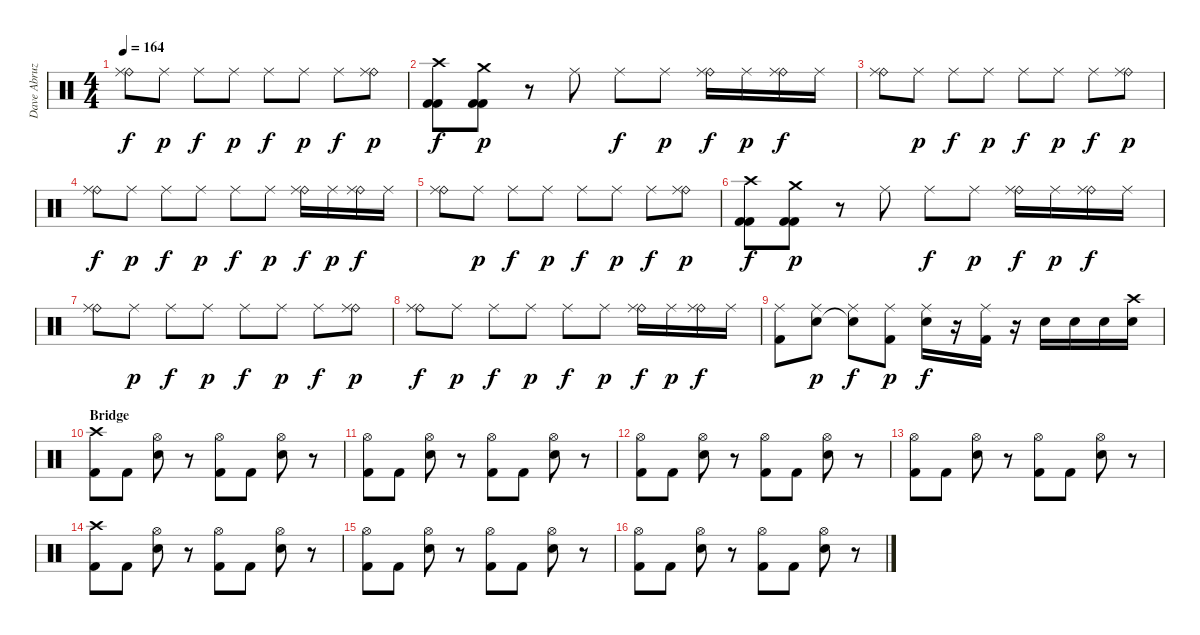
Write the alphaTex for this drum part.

\track ("Dave Abruzzese" "Dave Abruz") {instrument percussion}
\staff {score}
\articulation defaults
\ts (4 4)
\tempo 164
\clef neutral
\ks c
("Ride (bell)" "Ride (middle)").8{dy f} "Ride (middle)".8{dy p} "Ride (middle)".8{dy f} "Ride (middle)".8{dy p} "Ride (middle)".8{dy f} "Ride (middle)".8{dy p} "Ride (middle)".8{dy f} ("Ride (bell)" "Ride (middle)").8{dy p} |
("Crash high (hit)" "Kick (hit) 2" "Kick (hit) 2").8{dy f} ("Crash medium (hit)" "Kick (hit) 2" "Kick (hit) 2").8{dy p} r.8 "Ride (middle)".8 "Ride (middle)".8{dy f} "Ride (middle)".8{dy p} ("Ride (bell)" "Ride (middle)").16{dy f} "Ride (middle)".16{dy p} ("Ride (bell)" "Ride (middle)").16{dy f} "Ride (middle)".16 |
("Ride (bell)" "Ride (middle)").8 "Ride (middle)".8{dy p} "Ride (middle)".8{dy f} "Ride (middle)".8{dy p} "Ride (middle)".8{dy f} "Ride (middle)".8{dy p} "Ride (middle)".8{dy f} ("Ride (bell)" "Ride (middle)").8{dy p} |
("Ride (bell)" "Ride (middle)").8{dy f} "Ride (middle)".8{dy p} "Ride (middle)".8{dy f} "Ride (middle)".8{dy p} "Ride (middle)".8{dy f} "Ride (middle)".8{dy p} ("Ride (bell)" "Ride (middle)").16{dy f} "Ride (middle)".16{dy p} ("Ride (bell)" "Ride (middle)").16{dy f} "Ride (middle)".16 |
("Ride (bell)" "Ride (middle)").8 "Ride (middle)".8{dy p} "Ride (middle)".8{dy f} "Ride (middle)".8{dy p} "Ride (middle)".8{dy f} "Ride (middle)".8{dy p} "Ride (middle)".8{dy f} ("Ride (bell)" "Ride (middle)").8{dy p} |
("Crash high (hit)" "Kick (hit) 2" "Kick (hit) 2").8{dy f} ("Crash medium (hit)" "Kick (hit) 2" "Kick (hit) 2").8{dy p} r.8 "Ride (middle)".8 "Ride (middle)".8{dy f} "Ride (middle)".8{dy p} ("Ride (bell)" "Ride (middle)").16{dy f} "Ride (middle)".16{dy p} ("Ride (bell)" "Ride (middle)").16{dy f} "Ride (middle)".16 |
("Ride (bell)" "Ride (middle)").8 "Ride (middle)".8{dy p} "Ride (middle)".8{dy f} "Ride (middle)".8{dy p} "Ride (middle)".8{dy f} "Ride (middle)".8{dy p} "Ride (middle)".8{dy f} ("Ride (bell)" "Ride (middle)").8{dy p} |
("Ride (bell)" "Ride (middle)").8{dy f} "Ride (middle)".8{dy p} "Ride (middle)".8{dy f} "Ride (middle)".8{dy p} "Ride (middle)".8{dy f} "Ride (middle)".8{dy p} ("Ride (bell)" "Ride (middle)").16{dy f} "Ride (middle)".16{dy p} ("Ride (bell)" "Ride (middle)").16{dy f} "Ride (middle)".16 |
("Ride (middle)" "Kick (hit) 2").8 ("Snare (hit) 2" "Ride (middle)").8{dy p} ("Snare (hit) 2"{t} "Ride (middle)").8{dy f} ("Kick (hit) 2" "Ride (middle)").8{dy p} ("Snare (hit) 2" "Ride (middle)").16{dy f} r.16 ("Kick (hit) 2" "Ride (middle)").16 r.16 "Snare (hit) 2".16 "Snare (hit) 2".16 "Snare (hit) 2".16 ("Crash high (hit)" "Snare (hit) 2").16 |
\section ("" "Bridge")
("Kick (hit) 2" "Crash high (hit)").8 "Kick (hit) 2".8 ("Electric Snare (hit)" "Hi-Hat (open)").8 r.8 ("Kick (hit) 2" "Hi-Hat (open)").8 "Kick (hit) 2".8 ("Electric Snare (hit)" "Hi-Hat (open)").8 r.8 |
("Kick (hit) 2" "Hi-Hat (open)").8 "Kick (hit) 2".8 ("Electric Snare (hit)" "Hi-Hat (open)").8 r.8 ("Kick (hit) 2" "Hi-Hat (open)").8 "Kick (hit) 2".8 ("Electric Snare (hit)" "Hi-Hat (open)").8 r.8 |
("Kick (hit) 2" "Hi-Hat (open)").8 "Kick (hit) 2".8 ("Electric Snare (hit)" "Hi-Hat (open)").8 r.8 ("Kick (hit) 2" "Hi-Hat (open)").8 "Kick (hit) 2".8 ("Electric Snare (hit)" "Hi-Hat (open)").8 r.8 |
("Kick (hit) 2" "Hi-Hat (open)").8 "Kick (hit) 2".8 ("Electric Snare (hit)" "Hi-Hat (open)").8 r.8 ("Kick (hit) 2" "Hi-Hat (open)").8 "Kick (hit) 2".8 ("Electric Snare (hit)" "Hi-Hat (open)").8 r.8 |
("Kick (hit) 2" "Crash high (hit)").8 "Kick (hit) 2".8 ("Electric Snare (hit)" "Hi-Hat (open)").8 r.8 ("Kick (hit) 2" "Hi-Hat (open)").8 "Kick (hit) 2".8 ("Electric Snare (hit)" "Hi-Hat (open)").8 r.8 |
("Kick (hit) 2" "Hi-Hat (open)").8 "Kick (hit) 2".8 ("Electric Snare (hit)" "Hi-Hat (open)").8 r.8 ("Kick (hit) 2" "Hi-Hat (open)").8 "Kick (hit) 2".8 ("Electric Snare (hit)" "Hi-Hat (open)").8 r.8 |
("Kick (hit) 2" "Hi-Hat (open)").8 "Kick (hit) 2".8 ("Electric Snare (hit)" "Hi-Hat (open)").8 r.8 ("Kick (hit) 2" "Hi-Hat (open)").8 "Kick (hit) 2".8 ("Electric Snare (hit)" "Hi-Hat (open)").8 r.8
